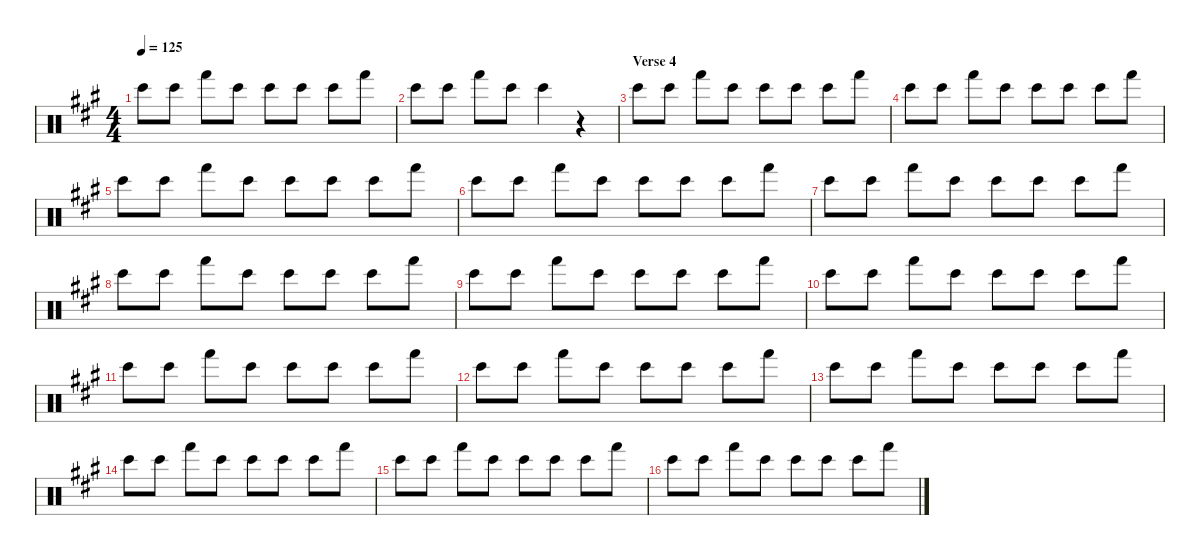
\defaultSystemsLayout 4
\hideDynamics
\bracketExtendMode nobrackets
\singleTrackTrackNamePolicy hidden
\multiTrackTrackNamePolicy hidden
\otherSystemsTrackNameOrientation horizontal
\track ("Percussion" "drm.") {instrument percussion}
\staff {score}
\articulation defaults
\ts (4 4)
\tempo 125
\clef neutral
\ks a "Bongo High (hit)"{acc forcenatural}.8{dy f beam Down} "Bongo High (hit)"{acc forcenatural}.8{beam Down} "Hand (hit)"{acc forcenatural}.8{beam Down} "Bongo High (hit)"{acc forcenatural}.8{beam Down} "Bongo High (hit)"{acc forcenatural}.8{beam Down} "Bongo High (hit)"{acc forcenatural}.8{beam Down} "Bongo High (hit)"{acc forcenatural}.8{beam Down} "Hand (hit)"{acc forcenatural}.8{beam Down}
|
"Bongo High (hit)"{acc forcenatural}.8{beam Down} "Bongo High (hit)"{acc forcenatural}.8{beam Down} "Hand (hit)"{acc forcenatural}.8{beam Down} "Bongo High (hit)"{acc forcenatural}.8{beam Down} "Bongo High (hit)"{acc forcenatural}.4{beam Down} r.4{beam Down} |
\section ("" "Verse 4")
"Bongo High (hit)"{acc forcenatural}.8{beam Down} "Bongo High (hit)"{acc forcenatural}.8{beam Down} "Hand (hit)"{acc forcenatural}.8{beam Down} "Bongo High (hit)"{acc forcenatural}.8{beam Down} "Bongo High (hit)"{acc forcenatural}.8{beam Down} "Bongo High (hit)"{acc forcenatural}.8{beam Down} "Bongo High (hit)"{acc forcenatural}.8{beam Down} "Hand (hit)"{acc forcenatural}.8{beam Down} |
"Bongo High (hit)"{acc forcenatural}.8{beam Down} "Bongo High (hit)"{acc forcenatural}.8{beam Down} "Hand (hit)"{acc forcenatural}.8{beam Down} "Bongo High (hit)"{acc forcenatural}.8{beam Down} "Bongo High (hit)"{acc forcenatural}.8{beam Down} "Bongo High (hit)"{acc forcenatural}.8{beam Down} "Bongo High (hit)"{acc forcenatural}.8{beam Down} "Hand (hit)"{acc forcenatural}.8{beam Down} |
"Bongo High (hit)"{acc forcenatural}.8{beam Down} "Bongo High (hit)"{acc forcenatural}.8{beam Down} "Hand (hit)"{acc forcenatural}.8{beam Down} "Bongo High (hit)"{acc forcenatural}.8{beam Down} "Bongo High (hit)"{acc forcenatural}.8{beam Down} "Bongo High (hit)"{acc forcenatural}.8{beam Down} "Bongo High (hit)"{acc forcenatural}.8{beam Down} "Hand (hit)"{acc forcenatural}.8{beam Down} |
"Bongo High (hit)"{acc forcenatural}.8{beam Down} "Bongo High (hit)"{acc forcenatural}.8{beam Down} "Hand (hit)"{acc forcenatural}.8{beam Down} "Bongo High (hit)"{acc forcenatural}.8{beam Down} "Bongo High (hit)"{acc forcenatural}.8{beam Down} "Bongo High (hit)"{acc forcenatural}.8{beam Down} "Bongo High (hit)"{acc forcenatural}.8{beam Down} "Hand (hit)"{acc forcenatural}.8{beam Down} |
"Bongo High (hit)"{acc forcenatural}.8{beam Down} "Bongo High (hit)"{acc forcenatural}.8{beam Down} "Hand (hit)"{acc forcenatural}.8{beam Down} "Bongo High (hit)"{acc forcenatural}.8{beam Down} "Bongo High (hit)"{acc forcenatural}.8{beam Down} "Bongo High (hit)"{acc forcenatural}.8{beam Down} "Bongo High (hit)"{acc forcenatural}.8{beam Down} "Hand (hit)"{acc forcenatural}.8{beam Down} |
"Bongo High (hit)"{acc forcenatural}.8{beam Down} "Bongo High (hit)"{acc forcenatural}.8{beam Down} "Hand (hit)"{acc forcenatural}.8{beam Down} "Bongo High (hit)"{acc forcenatural}.8{beam Down} "Bongo High (hit)"{acc forcenatural}.8{beam Down} "Bongo High (hit)"{acc forcenatural}.8{beam Down} "Bongo High (hit)"{acc forcenatural}.8{beam Down} "Hand (hit)"{acc forcenatural}.8{beam Down} |
"Bongo High (hit)"{acc forcenatural}.8{beam Down} "Bongo High (hit)"{acc forcenatural}.8{beam Down} "Hand (hit)"{acc forcenatural}.8{beam Down} "Bongo High (hit)"{acc forcenatural}.8{beam Down} "Bongo High (hit)"{acc forcenatural}.8{beam Down} "Bongo High (hit)"{acc forcenatural}.8{beam Down} "Bongo High (hit)"{acc forcenatural}.8{beam Down} "Hand (hit)"{acc forcenatural}.8{beam Down} |
"Bongo High (hit)"{acc forcenatural}.8{beam Down} "Bongo High (hit)"{acc forcenatural}.8{beam Down} "Hand (hit)"{acc forcenatural}.8{beam Down} "Bongo High (hit)"{acc forcenatural}.8{beam Down} "Bongo High (hit)"{acc forcenatural}.8{beam Down} "Bongo High (hit)"{acc forcenatural}.8{beam Down} "Bongo High (hit)"{acc forcenatural}.8{beam Down} "Hand (hit)"{acc forcenatural}.8{beam Down} |
"Bongo High (hit)"{acc forcenatural}.8{beam Down} "Bongo High (hit)"{acc forcenatural}.8{beam Down} "Hand (hit)"{acc forcenatural}.8{beam Down} "Bongo High (hit)"{acc forcenatural}.8{beam Down} "Bongo High (hit)"{acc forcenatural}.8{beam Down} "Bongo High (hit)"{acc forcenatural}.8{beam Down} "Bongo High (hit)"{acc forcenatural}.8{beam Down} "Hand (hit)"{acc forcenatural}.8{beam Down} |
"Bongo High (hit)"{acc forcenatural}.8{beam Down} "Bongo High (hit)"{acc forcenatural}.8{beam Down} "Hand (hit)"{acc forcenatural}.8{beam Down} "Bongo High (hit)"{acc forcenatural}.8{beam Down} "Bongo High (hit)"{acc forcenatural}.8{beam Down} "Bongo High (hit)"{acc forcenatural}.8{beam Down} "Bongo High (hit)"{acc forcenatural}.8{beam Down} "Hand (hit)"{acc forcenatural}.8{beam Down} |
"Bongo High (hit)"{acc forcenatural}.8{beam Down} "Bongo High (hit)"{acc forcenatural}.8{beam Down} "Hand (hit)"{acc forcenatural}.8{beam Down} "Bongo High (hit)"{acc forcenatural}.8{beam Down} "Bongo High (hit)"{acc forcenatural}.8{beam Down} "Bongo High (hit)"{acc forcenatural}.8{beam Down} "Bongo High (hit)"{acc forcenatural}.8{beam Down} "Hand (hit)"{acc forcenatural}.8{beam Down} |
"Bongo High (hit)"{acc forcenatural}.8{beam Down} "Bongo High (hit)"{acc forcenatural}.8{beam Down} "Hand (hit)"{acc forcenatural}.8{beam Down} "Bongo High (hit)"{acc forcenatural}.8{beam Down} "Bongo High (hit)"{acc forcenatural}.8{beam Down} "Bongo High (hit)"{acc forcenatural}.8{beam Down} "Bongo High (hit)"{acc forcenatural}.8{beam Down} "Hand (hit)"{acc forcenatural}.8{beam Down} |
"Bongo High (hit)"{acc forcenatural}.8{beam Down} "Bongo High (hit)"{acc forcenatural}.8{beam Down} "Hand (hit)"{acc forcenatural}.8{beam Down} "Bongo High (hit)"{acc forcenatural}.8{beam Down} "Bongo High (hit)"{acc forcenatural}.8{beam Down} "Bongo High (hit)"{acc forcenatural}.8{beam Down} "Bongo High (hit)"{acc forcenatural}.8{beam Down} "Hand (hit)"{acc forcenatural}.8{beam Down} |
"Bongo High (hit)"{acc forcenatural}.8{beam Down} "Bongo High (hit)"{acc forcenatural}.8{beam Down} "Hand (hit)"{acc forcenatural}.8{beam Down} "Bongo High (hit)"{acc forcenatural}.8{beam Down} "Bongo High (hit)"{acc forcenatural}.8{beam Down} "Bongo High (hit)"{acc forcenatural}.8{beam Down} "Bongo High (hit)"{acc forcenatural}.8{beam Down} "Hand (hit)"{acc forcenatural}.8{beam Down}
